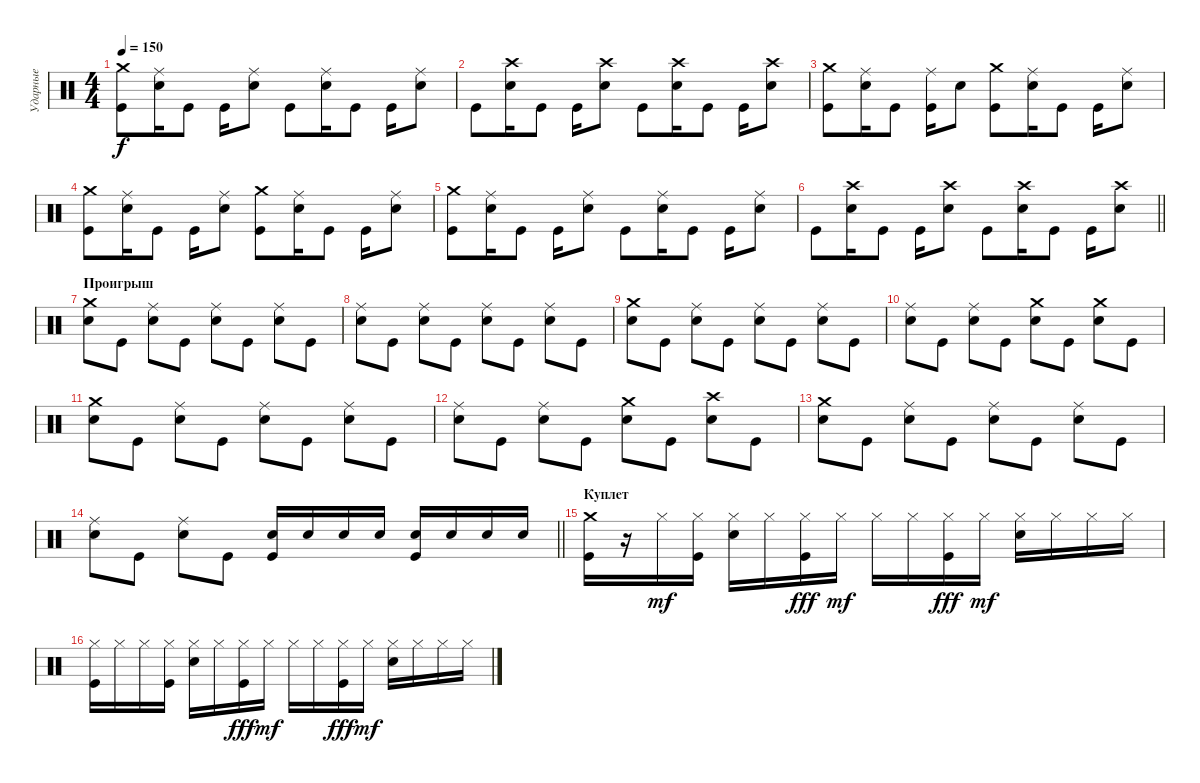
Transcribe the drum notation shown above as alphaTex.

\track ("Ударные" "Ударные") {instrument percussion}
\staff {score}
\articulation defaults
\ts (4 4)
\tempo 150
\clef neutral
\ks c
("Crash medium (hit)" "Kick (hit)").8{dy f} ("Ride (middle)" "Electric Snare (hit)").16 "Kick (hit)".8 "Kick (hit)".16 ("Ride (middle)" "Electric Snare (hit)").8 "Kick (hit)".8 ("Ride (middle)" "Electric Snare (hit)").16 "Kick (hit)".8 "Kick (hit)".16 ("Ride (middle)" "Electric Snare (hit)").8 |
"Kick (hit)".8 ("Crash high (hit)" "Electric Snare (hit)").16 "Kick (hit)".8 "Kick (hit)".16 ("Crash high (hit)" "Electric Snare (hit)").8 "Kick (hit)".8 ("Crash high (hit)" "Electric Snare (hit)").16 "Kick (hit)".8 "Kick (hit)".16 ("Crash high (hit)" "Electric Snare (hit)").8 |
("Crash medium (hit)" "Kick (hit)").8 ("Ride (middle)" "Electric Snare (hit)").16 "Kick (hit)".8 ("Ride (middle)" "Kick (hit)").16 "Electric Snare (hit)".8 ("Crash medium (hit)" "Kick (hit)").8 ("Ride (middle)" "Electric Snare (hit)").16 "Kick (hit)".8 "Kick (hit)".16 ("Ride (middle)" "Electric Snare (hit)").8 |
("Crash medium (hit)" "Kick (hit)").8 ("Ride (middle)" "Electric Snare (hit)").16 "Kick (hit)".8 "Kick (hit)".16 ("Ride (middle)" "Electric Snare (hit)").8 ("Crash medium (hit)" "Kick (hit)").8 ("Ride (middle)" "Electric Snare (hit)").16 "Kick (hit)".8 "Kick (hit)".16 ("Ride (middle)" "Electric Snare (hit)").8 |
("Crash medium (hit)" "Kick (hit)").8 ("Ride (middle)" "Electric Snare (hit)").16 "Kick (hit)".8 "Kick (hit)".16 ("Ride (middle)" "Electric Snare (hit)").8 "Kick (hit)".8 ("Ride (middle)" "Electric Snare (hit)").16 "Kick (hit)".8 "Kick (hit)".16 ("Ride (middle)" "Electric Snare (hit)").8 |
\barLineRight lightlight "Kick (hit)".8
("Crash high (hit)" "Electric Snare (hit)").16 "Kick (hit)".8 "Kick (hit)".16 ("Crash high (hit)" "Electric Snare (hit)").8 "Kick (hit)".8 ("Crash high (hit)" "Electric Snare (hit)").16 "Kick (hit)".8 "Kick (hit)".16 ("Crash high (hit)" "Electric Snare (hit)").8 |
\section ("" "Проигрыш")
("Crash medium (hit)" "Electric Snare (hit)").8 "Kick (hit)".8 ("Ride (middle)" "Electric Snare (hit)").8 "Kick (hit)".8 ("Ride (middle)" "Electric Snare (hit)").8 "Kick (hit)".8 ("Ride (middle)" "Electric Snare (hit)").8 "Kick (hit)".8 |
("Ride (middle)" "Electric Snare (hit)").8 "Kick (hit)".8 ("Ride (middle)" "Electric Snare (hit)").8 "Kick (hit)".8 ("Ride (middle)" "Electric Snare (hit)").8 "Kick (hit)".8 ("Ride (middle)" "Electric Snare (hit)").8 "Kick (hit)".8 |
("Crash medium (hit)" "Electric Snare (hit)").8 "Kick (hit)".8 ("Ride (middle)" "Electric Snare (hit)").8 "Kick (hit)".8 ("Ride (middle)" "Electric Snare (hit)").8 "Kick (hit)".8 ("Ride (middle)" "Electric Snare (hit)").8 "Kick (hit)".8 |
("Ride (middle)" "Electric Snare (hit)").8 "Kick (hit)".8 ("Ride (middle)" "Electric Snare (hit)").8 "Kick (hit)".8 ("Crash medium (hit)" "Electric Snare (hit)").8 "Kick (hit)".8 ("Crash medium (hit)" "Electric Snare (hit)").8 "Kick (hit)".8 |
("Crash medium (hit)" "Electric Snare (hit)").8 "Kick (hit)".8 ("Ride (middle)" "Electric Snare (hit)").8 "Kick (hit)".8 ("Ride (middle)" "Electric Snare (hit)").8 "Kick (hit)".8 ("Ride (middle)" "Electric Snare (hit)").8 "Kick (hit)".8 |
("Ride (middle)" "Electric Snare (hit)").8 "Kick (hit)".8 ("Ride (middle)" "Electric Snare (hit)").8 "Kick (hit)".8 ("Crash medium (hit)" "Electric Snare (hit)").8 "Kick (hit)".8 ("Crash high (hit)" "Electric Snare (hit)").8 "Kick (hit)".8 |
("Crash medium (hit)" "Electric Snare (hit)").8 "Kick (hit)".8 ("Ride (middle)" "Electric Snare (hit)").8 "Kick (hit)".8 ("Ride (middle)" "Electric Snare (hit)").8 "Kick (hit)".8 ("Ride (middle)" "Electric Snare (hit)").8 "Kick (hit)".8 |
\barLineRight lightlight
("Ride (middle)" "Electric Snare (hit)").8 "Kick (hit)".8 ("Ride (middle)" "Electric Snare (hit)").8 "Kick (hit)".8 ("Electric Snare (hit)" "Kick (hit)").16 "Electric Snare (hit)".16 "Electric Snare (hit)".16 "Electric Snare (hit)".16 ("Electric Snare (hit)" "Kick (hit)").16 "Electric Snare (hit)".16 "Electric Snare (hit)".16 "Electric Snare (hit)".16 |
\section ("" "Куплет")
("Crash medium (hit)" "Kick (hit)").16 r.16 "Hi-Hat (closed)".16{dy mf} ("Hi-Hat (closed)" "Kick (hit)").16 ("Hi-Hat (closed)" "Electric Snare (hit)").16 "Hi-Hat (closed)".16 ("Hi-Hat (closed)" "Kick (hit)").16{dy fff} "Hi-Hat (closed)".16{dy mf} "Hi-Hat (closed)".16 "Hi-Hat (closed)".16 ("Hi-Hat (closed)" "Kick (hit)").16{dy fff} "Hi-Hat (closed)".16{dy mf} ("Hi-Hat (closed)" "Electric Snare (hit)").16 "Hi-Hat (closed)".16 "Hi-Hat (closed)".16 "Hi-Hat (closed)".16 |
("Hi-Hat (closed)" "Kick (hit)").16 "Hi-Hat (closed)".16 "Hi-Hat (closed)".16 ("Hi-Hat (closed)" "Kick (hit)").16 ("Hi-Hat (closed)" "Electric Snare (hit)").16 "Hi-Hat (closed)".16 ("Hi-Hat (closed)" "Kick (hit)").16{dy fff} "Hi-Hat (closed)".16{dy mf} "Hi-Hat (closed)".16 "Hi-Hat (closed)".16 ("Hi-Hat (closed)" "Kick (hit)").16{dy fff} "Hi-Hat (closed)".16{dy mf} ("Hi-Hat (closed)" "Electric Snare (hit)").16 "Hi-Hat (closed)".16 "Hi-Hat (closed)".16 "Hi-Hat (closed)".16
